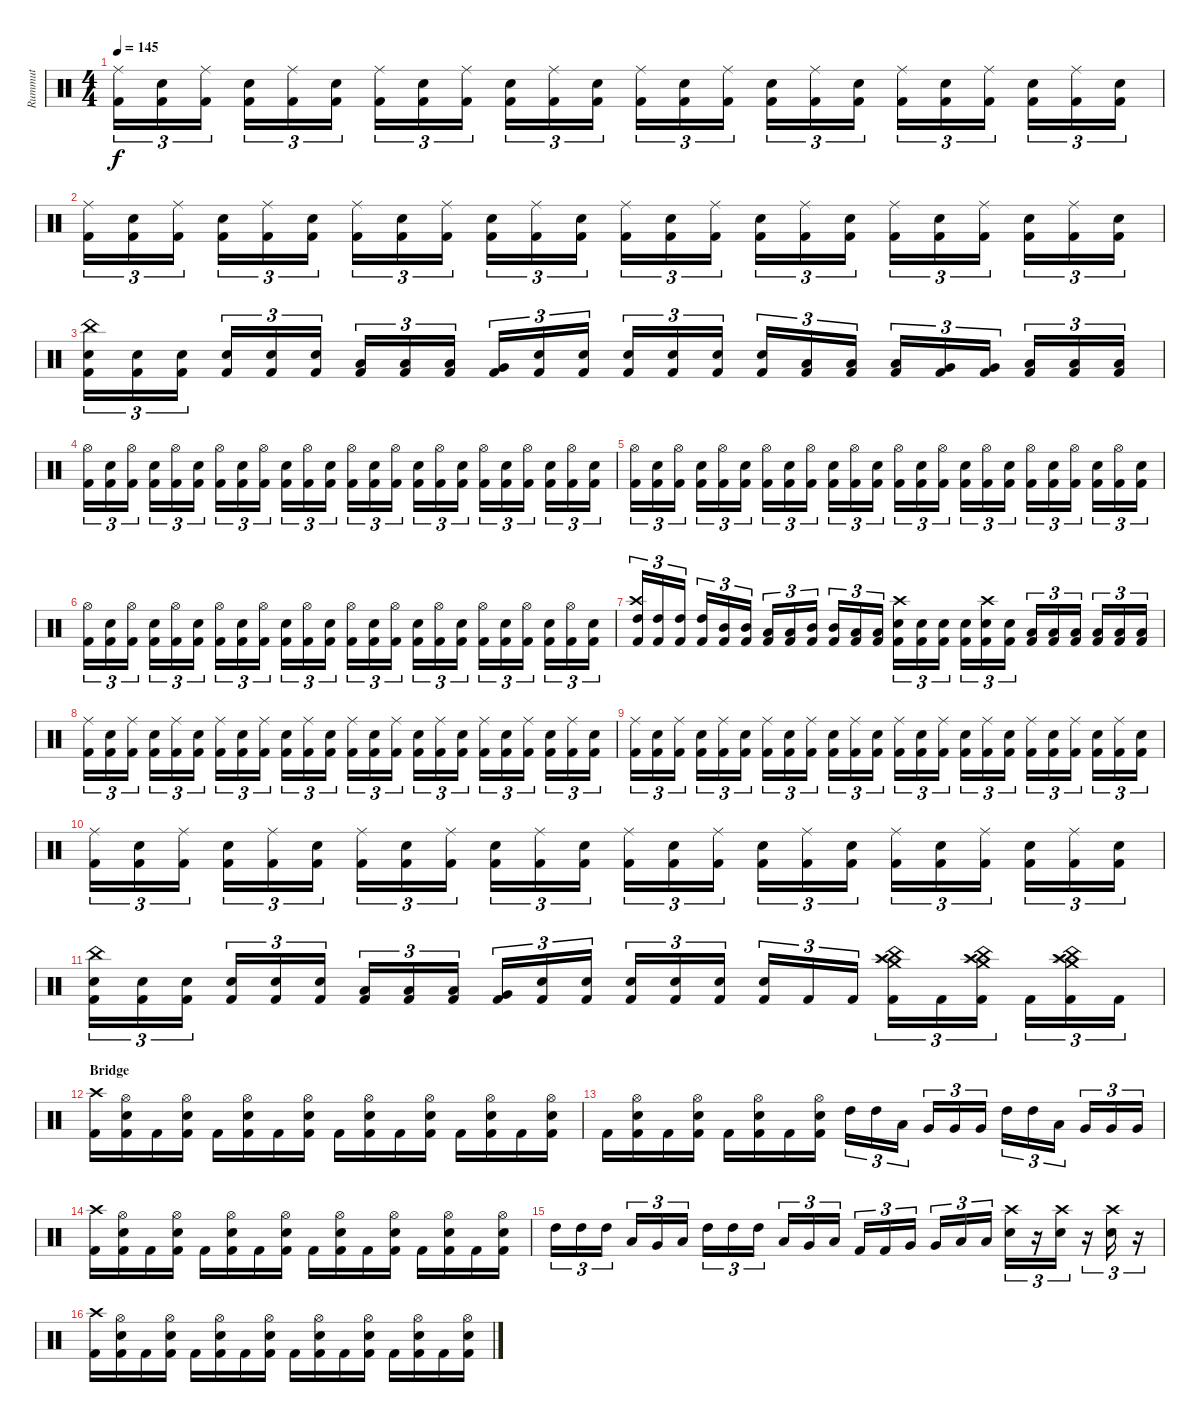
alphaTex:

\track ("Rummut" "Rummut") {instrument percussion}
\staff {score}
\articulation defaults
\ts (4 4)
\tempo 145
\clef neutral
\ks c
("Ride (middle)" "Kick (hit) 2").16{tu (3 2) dy f} ("Snare (hit) 2" "Kick (hit) 2").16{tu (3 2)} ("Ride (middle)" "Kick (hit) 2").16{tu (3 2)} ("Snare (hit) 2" "Kick (hit) 2").16{tu (3 2)} ("Ride (middle)" "Kick (hit) 2").16{tu (3 2)} ("Snare (hit) 2" "Kick (hit) 2").16{tu (3 2)} ("Ride (middle)" "Kick (hit) 2").16{tu (3 2)} ("Snare (hit) 2" "Kick (hit) 2").16{tu (3 2)} ("Ride (middle)" "Kick (hit) 2").16{tu (3 2)} ("Snare (hit) 2" "Kick (hit) 2").16{tu (3 2)} ("Ride (middle)" "Kick (hit) 2").16{tu (3 2)} ("Snare (hit) 2" "Kick (hit) 2").16{tu (3 2)} ("Ride (middle)" "Kick (hit) 2").16{tu (3 2)} ("Snare (hit) 2" "Kick (hit) 2").16{tu (3 2)} ("Ride (middle)" "Kick (hit) 2").16{tu (3 2)} ("Snare (hit) 2" "Kick (hit) 2").16{tu (3 2)} ("Ride (middle)" "Kick (hit) 2").16{tu (3 2)} ("Snare (hit) 2" "Kick (hit) 2").16{tu (3 2)} ("Ride (middle)" "Kick (hit) 2").16{tu (3 2)} ("Snare (hit) 2" "Kick (hit) 2").16{tu (3 2)} ("Ride (middle)" "Kick (hit) 2").16{tu (3 2)} ("Snare (hit) 2" "Kick (hit) 2").16{tu (3 2)} ("Ride (middle)" "Kick (hit) 2").16{tu (3 2)} ("Snare (hit) 2" "Kick (hit) 2").16{tu (3 2)} |
("Ride (middle)" "Kick (hit) 2").16{tu (3 2)} ("Snare (hit) 2" "Kick (hit) 2").16{tu (3 2)} ("Ride (middle)" "Kick (hit) 2").16{tu (3 2)} ("Snare (hit) 2" "Kick (hit) 2").16{tu (3 2)} ("Ride (middle)" "Kick (hit) 2").16{tu (3 2)} ("Snare (hit) 2" "Kick (hit) 2").16{tu (3 2)} ("Ride (middle)" "Kick (hit) 2").16{tu (3 2)} ("Snare (hit) 2" "Kick (hit) 2").16{tu (3 2)} ("Ride (middle)" "Kick (hit) 2").16{tu (3 2)} ("Snare (hit) 2" "Kick (hit) 2").16{tu (3 2)} ("Ride (middle)" "Kick (hit) 2").16{tu (3 2)} ("Snare (hit) 2" "Kick (hit) 2").16{tu (3 2)} ("Ride (middle)" "Kick (hit) 2").16{tu (3 2)} ("Snare (hit) 2" "Kick (hit) 2").16{tu (3 2)} ("Ride (middle)" "Kick (hit) 2").16{tu (3 2)} ("Snare (hit) 2" "Kick (hit) 2").16{tu (3 2)} ("Ride (middle)" "Kick (hit) 2").16{tu (3 2)} ("Snare (hit) 2" "Kick (hit) 2").16{tu (3 2)} ("Ride (middle)" "Kick (hit) 2").16{tu (3 2)} ("Snare (hit) 2" "Kick (hit) 2").16{tu (3 2)} ("Ride (middle)" "Kick (hit) 2").16{tu (3 2)} ("Snare (hit) 2" "Kick (hit) 2").16{tu (3 2)} ("Ride (middle)" "Kick (hit) 2").16{tu (3 2)} ("Snare (hit) 2" "Kick (hit) 2").16{tu (3 2)} |
("China (hit)" "Snare (hit) 2" "Kick (hit) 2").16{tu (3 2)} ("Snare (hit) 2" "Kick (hit) 2").16{tu (3 2)} ("Snare (hit) 2" "Kick (hit) 2").16{tu (3 2)} ("Snare (hit) 2" "Kick (hit) 2").16{tu (3 2)} ("Snare (hit) 2" "Kick (hit) 2").16{tu (3 2)} ("Snare (hit) 2" "Kick (hit) 2").16{tu (3 2)} ("Low Tom (hit)" "Kick (hit) 2").16{tu (3 2)} ("Low Tom (hit)" "Kick (hit) 2").16{tu (3 2)} ("Low Tom (hit)" "Kick (hit) 2").16{tu (3 2)} ("Very Low Tom (hit)" "Kick (hit) 2").16{tu (3 2)} ("Snare (hit) 2" "Kick (hit) 2").16{tu (3 2)} ("Snare (hit) 2" "Kick (hit) 2").16{tu (3 2)} ("Snare (hit) 2" "Kick (hit) 2").16{tu (3 2)} ("Snare (hit) 2" "Kick (hit) 2").16{tu (3 2)} ("Snare (hit) 2" "Kick (hit) 2").16{tu (3 2)} ("Snare (hit) 2" "Kick (hit) 2").16{tu (3 2)} ("Low Tom (hit)" "Kick (hit) 2").16{tu (3 2)} ("Low Tom (hit)" "Kick (hit) 2").16{tu (3 2)} ("Low Tom (hit)" "Kick (hit) 2").16{tu (3 2)} ("Very Low Tom (hit)" "Kick (hit) 2").16{tu (3 2)} ("Very Low Tom (hit)" "Kick (hit) 2").16{tu (3 2)} ("Low Floor Tom (hit)" "Kick (hit) 2").16{tu (3 2)} ("Low Floor Tom (hit)" "Kick (hit) 2").16{tu (3 2)} ("Low Floor Tom (hit)" "Kick (hit) 2").16{tu (3 2)} |
("Hi-Hat (open)" "Kick (hit) 2").16{tu (3 2)} ("Snare (hit) 2" "Kick (hit) 2").16{tu (3 2)} ("Hi-Hat (open)" "Kick (hit) 2").16{tu (3 2)} ("Snare (hit) 2" "Kick (hit) 2").16{tu (3 2)} ("Hi-Hat (open)" "Kick (hit) 2").16{tu (3 2)} ("Snare (hit) 2" "Kick (hit) 2").16{tu (3 2)} ("Hi-Hat (open)" "Kick (hit) 2").16{tu (3 2)} ("Snare (hit) 2" "Kick (hit) 2").16{tu (3 2)} ("Hi-Hat (open)" "Kick (hit) 2").16{tu (3 2)} ("Snare (hit) 2" "Kick (hit) 2").16{tu (3 2)} ("Hi-Hat (open)" "Kick (hit) 2").16{tu (3 2)} ("Snare (hit) 2" "Kick (hit) 2").16{tu (3 2)} ("Hi-Hat (open)" "Kick (hit) 2").16{tu (3 2)} ("Snare (hit) 2" "Kick (hit) 2").16{tu (3 2)} ("Hi-Hat (open)" "Kick (hit) 2").16{tu (3 2)} ("Snare (hit) 2" "Kick (hit) 2").16{tu (3 2)} ("Hi-Hat (open)" "Kick (hit) 2").16{tu (3 2)} ("Snare (hit) 2" "Kick (hit) 2").16{tu (3 2)} ("Hi-Hat (open)" "Kick (hit) 2").16{tu (3 2)} ("Snare (hit) 2" "Kick (hit) 2").16{tu (3 2)} ("Hi-Hat (open)" "Kick (hit) 2").16{tu (3 2)} ("Snare (hit) 2" "Kick (hit) 2").16{tu (3 2)} ("Hi-Hat (open)" "Kick (hit) 2").16{tu (3 2)} ("Snare (hit) 2" "Kick (hit) 2").16{tu (3 2)} |
("Hi-Hat (open)" "Kick (hit) 2").16{tu (3 2)} ("Snare (hit) 2" "Kick (hit) 2").16{tu (3 2)} ("Hi-Hat (open)" "Kick (hit) 2").16{tu (3 2)} ("Snare (hit) 2" "Kick (hit) 2").16{tu (3 2)} ("Hi-Hat (open)" "Kick (hit) 2").16{tu (3 2)} ("Snare (hit) 2" "Kick (hit) 2").16{tu (3 2)} ("Hi-Hat (open)" "Kick (hit) 2").16{tu (3 2)} ("Snare (hit) 2" "Kick (hit) 2").16{tu (3 2)} ("Hi-Hat (open)" "Kick (hit) 2").16{tu (3 2)} ("Snare (hit) 2" "Kick (hit) 2").16{tu (3 2)} ("Hi-Hat (open)" "Kick (hit) 2").16{tu (3 2)} ("Snare (hit) 2" "Kick (hit) 2").16{tu (3 2)} ("Hi-Hat (open)" "Kick (hit) 2").16{tu (3 2)} ("Snare (hit) 2" "Kick (hit) 2").16{tu (3 2)} ("Hi-Hat (open)" "Kick (hit) 2").16{tu (3 2)} ("Snare (hit) 2" "Kick (hit) 2").16{tu (3 2)} ("Hi-Hat (open)" "Kick (hit) 2").16{tu (3 2)} ("Snare (hit) 2" "Kick (hit) 2").16{tu (3 2)} ("Hi-Hat (open)" "Kick (hit) 2").16{tu (3 2)} ("Snare (hit) 2" "Kick (hit) 2").16{tu (3 2)} ("Hi-Hat (open)" "Kick (hit) 2").16{tu (3 2)} ("Snare (hit) 2" "Kick (hit) 2").16{tu (3 2)} ("Hi-Hat (open)" "Kick (hit) 2").16{tu (3 2)} ("Snare (hit) 2" "Kick (hit) 2").16{tu (3 2)} |
("Hi-Hat (open)" "Kick (hit) 2").16{tu (3 2)} ("Snare (hit) 2" "Kick (hit) 2").16{tu (3 2)} ("Hi-Hat (open)" "Kick (hit) 2").16{tu (3 2)} ("Snare (hit) 2" "Kick (hit) 2").16{tu (3 2)} ("Hi-Hat (open)" "Kick (hit) 2").16{tu (3 2)} ("Snare (hit) 2" "Kick (hit) 2").16{tu (3 2)} ("Hi-Hat (open)" "Kick (hit) 2").16{tu (3 2)} ("Snare (hit) 2" "Kick (hit) 2").16{tu (3 2)} ("Hi-Hat (open)" "Kick (hit) 2").16{tu (3 2)} ("Snare (hit) 2" "Kick (hit) 2").16{tu (3 2)} ("Hi-Hat (open)" "Kick (hit) 2").16{tu (3 2)} ("Snare (hit) 2" "Kick (hit) 2").16{tu (3 2)} ("Hi-Hat (open)" "Kick (hit) 2").16{tu (3 2)} ("Snare (hit) 2" "Kick (hit) 2").16{tu (3 2)} ("Hi-Hat (open)" "Kick (hit) 2").16{tu (3 2)} ("Snare (hit) 2" "Kick (hit) 2").16{tu (3 2)} ("Hi-Hat (open)" "Kick (hit) 2").16{tu (3 2)} ("Snare (hit) 2" "Kick (hit) 2").16{tu (3 2)} ("Hi-Hat (open)" "Kick (hit) 2").16{tu (3 2)} ("Snare (hit) 2" "Kick (hit) 2").16{tu (3 2)} ("Hi-Hat (open)" "Kick (hit) 2").16{tu (3 2)} ("Snare (hit) 2" "Kick (hit) 2").16{tu (3 2)} ("Hi-Hat (open)" "Kick (hit) 2").16{tu (3 2)} ("Snare (hit) 2" "Kick (hit) 2").16{tu (3 2)} |
("Crash high (hit)" "High Tom (hit)" "Kick (hit) 2").16{tu (3 2)} ("High Tom (hit)" "Kick (hit) 2").16{tu (3 2)} ("High Tom (hit)" "Kick (hit) 2").16{tu (3 2)} ("High Tom (hit)" "Kick (hit) 2").16{tu (3 2)} ("Mid Tom (hit)" "Kick (hit) 2").16{tu (3 2)} ("Mid Tom (hit)" "Kick (hit) 2").16{tu (3 2)} ("Low Tom (hit)" "Kick (hit) 2").16{tu (3 2)} ("Low Tom (hit)" "Kick (hit) 2").16{tu (3 2)} ("Mid Tom (hit)" "Kick (hit) 2").16{tu (3 2)} ("Mid Tom (hit)" "Kick (hit) 2").16{tu (3 2)} ("Low Tom (hit)" "Kick (hit) 2").16{tu (3 2)} ("Low Tom (hit)" "Kick (hit) 2").16{tu (3 2)} ("Crash high (hit)" "Snare (hit) 2" "Kick (hit) 2").16{tu (3 2)} ("Snare (hit) 2" "Kick (hit) 2").16{tu (3 2)} ("Snare (hit) 2" "Kick (hit) 2").16{tu (3 2)} ("Snare (hit) 2" "Kick (hit) 2").16{tu (3 2)} ("Crash high (hit)" "Snare (hit) 2" "Kick (hit) 2").16{tu (3 2)} ("Snare (hit) 2" "Kick (hit) 2").16{tu (3 2)} ("Low Tom (hit)" "Kick (hit) 2").16{tu (3 2)} ("Low Tom (hit)" "Kick (hit) 2").16{tu (3 2)} ("Low Tom (hit)" "Kick (hit) 2").16{tu (3 2)} ("Low Tom (hit)" "Kick (hit) 2").16{tu (3 2)} ("Low Tom (hit)" "Kick (hit) 2").16{tu (3 2)} ("Low Tom (hit)" "Kick (hit) 2").16{tu (3 2)} |
("Ride (middle)" "Kick (hit) 2").16{tu (3 2)} ("Snare (hit) 2" "Kick (hit) 2").16{tu (3 2)} ("Ride (middle)" "Kick (hit) 2").16{tu (3 2)} ("Snare (hit) 2" "Kick (hit) 2").16{tu (3 2)} ("Ride (middle)" "Kick (hit) 2").16{tu (3 2)} ("Snare (hit) 2" "Kick (hit) 2").16{tu (3 2)} ("Ride (middle)" "Kick (hit) 2").16{tu (3 2)} ("Snare (hit) 2" "Kick (hit) 2").16{tu (3 2)} ("Ride (middle)" "Kick (hit) 2").16{tu (3 2)} ("Snare (hit) 2" "Kick (hit) 2").16{tu (3 2)} ("Ride (middle)" "Kick (hit) 2").16{tu (3 2)} ("Snare (hit) 2" "Kick (hit) 2").16{tu (3 2)} ("Ride (middle)" "Kick (hit) 2").16{tu (3 2)} ("Snare (hit) 2" "Kick (hit) 2").16{tu (3 2)} ("Ride (middle)" "Kick (hit) 2").16{tu (3 2)} ("Snare (hit) 2" "Kick (hit) 2").16{tu (3 2)} ("Ride (middle)" "Kick (hit) 2").16{tu (3 2)} ("Snare (hit) 2" "Kick (hit) 2").16{tu (3 2)} ("Ride (middle)" "Kick (hit) 2").16{tu (3 2)} ("Snare (hit) 2" "Kick (hit) 2").16{tu (3 2)} ("Ride (middle)" "Kick (hit) 2").16{tu (3 2)} ("Snare (hit) 2" "Kick (hit) 2").16{tu (3 2)} ("Ride (middle)" "Kick (hit) 2").16{tu (3 2)} ("Snare (hit) 2" "Kick (hit) 2").16{tu (3 2)} |
("Ride (middle)" "Kick (hit) 2").16{tu (3 2)} ("Snare (hit) 2" "Kick (hit) 2").16{tu (3 2)} ("Ride (middle)" "Kick (hit) 2").16{tu (3 2)} ("Snare (hit) 2" "Kick (hit) 2").16{tu (3 2)} ("Ride (middle)" "Kick (hit) 2").16{tu (3 2)} ("Snare (hit) 2" "Kick (hit) 2").16{tu (3 2)} ("Ride (middle)" "Kick (hit) 2").16{tu (3 2)} ("Snare (hit) 2" "Kick (hit) 2").16{tu (3 2)} ("Ride (middle)" "Kick (hit) 2").16{tu (3 2)} ("Snare (hit) 2" "Kick (hit) 2").16{tu (3 2)} ("Ride (middle)" "Kick (hit) 2").16{tu (3 2)} ("Snare (hit) 2" "Kick (hit) 2").16{tu (3 2)} ("Ride (middle)" "Kick (hit) 2").16{tu (3 2)} ("Snare (hit) 2" "Kick (hit) 2").16{tu (3 2)} ("Ride (middle)" "Kick (hit) 2").16{tu (3 2)} ("Snare (hit) 2" "Kick (hit) 2").16{tu (3 2)} ("Ride (middle)" "Kick (hit) 2").16{tu (3 2)} ("Snare (hit) 2" "Kick (hit) 2").16{tu (3 2)} ("Ride (middle)" "Kick (hit) 2").16{tu (3 2)} ("Snare (hit) 2" "Kick (hit) 2").16{tu (3 2)} ("Ride (middle)" "Kick (hit) 2").16{tu (3 2)} ("Snare (hit) 2" "Kick (hit) 2").16{tu (3 2)} ("Ride (middle)" "Kick (hit) 2").16{tu (3 2)} ("Snare (hit) 2" "Kick (hit) 2").16{tu (3 2)} |
("Ride (middle)" "Kick (hit) 2").16{tu (3 2)} ("Snare (hit) 2" "Kick (hit) 2").16{tu (3 2)} ("Ride (middle)" "Kick (hit) 2").16{tu (3 2)} ("Snare (hit) 2" "Kick (hit) 2").16{tu (3 2)} ("Ride (middle)" "Kick (hit) 2").16{tu (3 2)} ("Snare (hit) 2" "Kick (hit) 2").16{tu (3 2)} ("Ride (middle)" "Kick (hit) 2").16{tu (3 2)} ("Snare (hit) 2" "Kick (hit) 2").16{tu (3 2)} ("Ride (middle)" "Kick (hit) 2").16{tu (3 2)} ("Snare (hit) 2" "Kick (hit) 2").16{tu (3 2)} ("Ride (middle)" "Kick (hit) 2").16{tu (3 2)} ("Snare (hit) 2" "Kick (hit) 2").16{tu (3 2)} ("Ride (middle)" "Kick (hit) 2").16{tu (3 2)} ("Snare (hit) 2" "Kick (hit) 2").16{tu (3 2)} ("Ride (middle)" "Kick (hit) 2").16{tu (3 2)} ("Snare (hit) 2" "Kick (hit) 2").16{tu (3 2)} ("Ride (middle)" "Kick (hit) 2").16{tu (3 2)} ("Snare (hit) 2" "Kick (hit) 2").16{tu (3 2)} ("Ride (middle)" "Kick (hit) 2").16{tu (3 2)} ("Snare (hit) 2" "Kick (hit) 2").16{tu (3 2)} ("Ride (middle)" "Kick (hit) 2").16{tu (3 2)} ("Snare (hit) 2" "Kick (hit) 2").16{tu (3 2)} ("Ride (middle)" "Kick (hit) 2").16{tu (3 2)} ("Snare (hit) 2" "Kick (hit) 2").16{tu (3 2)} |
("China (hit)" "Snare (hit) 2" "Kick (hit) 2").16{tu (3 2)} ("Snare (hit) 2" "Kick (hit) 2").16{tu (3 2)} ("Snare (hit) 2" "Kick (hit) 2").16{tu (3 2)} ("Snare (hit) 2" "Kick (hit) 2").16{tu (3 2)} ("Snare (hit) 2" "Kick (hit) 2").16{tu (3 2)} ("Snare (hit) 2" "Kick (hit) 2").16{tu (3 2)} ("Low Tom (hit)" "Kick (hit) 2").16{tu (3 2)} ("Low Tom (hit)" "Kick (hit) 2").16{tu (3 2)} ("Low Tom (hit)" "Kick (hit) 2").16{tu (3 2)} ("Very Low Tom (hit)" "Kick (hit) 2").16{tu (3 2)} ("Snare (hit) 2" "Kick (hit) 2").16{tu (3 2)} ("Snare (hit) 2" "Kick (hit) 2").16{tu (3 2)} ("Snare (hit) 2" "Kick (hit) 2").16{tu (3 2)} ("Snare (hit) 2" "Kick (hit) 2").16{tu (3 2)} ("Snare (hit) 2" "Kick (hit) 2").16{tu (3 2)} ("Snare (hit) 2" "Kick (hit) 2").16{tu (3 2)} "Kick (hit) 2".16{tu (3 2)} "Kick (hit) 2".16{tu (3 2)} ("Crash high (hit)" "Crash medium (hit)" "China (hit)" "Splash (hit)" "Kick (hit) 2").16{tu (3 2)} "Kick (hit) 2".16{tu (3 2)} ("Crash high (hit)" "Crash medium (hit)" "China (hit)" "Splash (hit)" "Kick (hit) 2").16{tu (3 2)} "Kick (hit) 2".16{tu (3 2)} ("Crash high (hit)" "Crash medium (hit)" "China (hit)" "Splash (hit)" "Kick (hit) 2").16{tu (3 2)} "Kick (hit) 2".16{tu (3 2)} |
\section ("" "Bridge")
("Crash high (hit)" "Kick (hit) 2").16 ("Hi-Hat (open)" "Snare (hit) 2" "Kick (hit) 2").16 "Kick (hit) 2".16 ("Hi-Hat (open)" "Snare (hit) 2" "Kick (hit) 2").16 "Kick (hit) 2".16 ("Hi-Hat (open)" "Snare (hit) 2" "Kick (hit) 2").16 "Kick (hit) 2".16 ("Hi-Hat (open)" "Snare (hit) 2" "Kick (hit) 2").16 "Kick (hit) 2".16 ("Hi-Hat (open)" "Snare (hit) 2" "Kick (hit) 2").16 "Kick (hit) 2".16 ("Hi-Hat (open)" "Snare (hit) 2" "Kick (hit) 2").16 "Kick (hit) 2".16 ("Hi-Hat (open)" "Snare (hit) 2" "Kick (hit) 2").16 "Kick (hit) 2".16 ("Hi-Hat (open)" "Snare (hit) 2" "Kick (hit) 2").16 |
"Kick (hit) 2".16 ("Hi-Hat (open)" "Snare (hit) 2" "Kick (hit) 2").16 "Kick (hit) 2".16 ("Hi-Hat (open)" "Snare (hit) 2" "Kick (hit) 2").16 "Kick (hit) 2".16 ("Hi-Hat (open)" "Snare (hit) 2" "Kick (hit) 2").16 "Kick (hit) 2".16 ("Hi-Hat (open)" "Snare (hit) 2" "Kick (hit) 2").16 "High Tom (hit)".16{tu (3 2)} "High Tom (hit)".16{tu (3 2)} "Low Tom (hit)".16{tu (3 2)} "Very Low Tom (hit)".16{tu (3 2)} "Very Low Tom (hit)".16{tu (3 2)} "Very Low Tom (hit)".16{tu (3 2)} "High Tom (hit)".16{tu (3 2)} "High Tom (hit)".16{tu (3 2)} "Low Tom (hit)".16{tu (3 2)} "Very Low Tom (hit)".16{tu (3 2)} "Very Low Tom (hit)".16{tu (3 2)} "Very Low Tom (hit)".16{tu (3 2)} |
("Crash high (hit)" "Kick (hit) 2").16 ("Hi-Hat (open)" "Snare (hit) 2" "Kick (hit) 2").16 "Kick (hit) 2".16 ("Hi-Hat (open)" "Snare (hit) 2" "Kick (hit) 2").16 "Kick (hit) 2".16 ("Hi-Hat (open)" "Snare (hit) 2" "Kick (hit) 2").16 "Kick (hit) 2".16 ("Hi-Hat (open)" "Snare (hit) 2" "Kick (hit) 2").16 "Kick (hit) 2".16 ("Hi-Hat (open)" "Snare (hit) 2" "Kick (hit) 2").16 "Kick (hit) 2".16 ("Hi-Hat (open)" "Snare (hit) 2" "Kick (hit) 2").16 "Kick (hit) 2".16 ("Hi-Hat (open)" "Snare (hit) 2" "Kick (hit) 2").16 "Kick (hit) 2".16 ("Hi-Hat (open)" "Snare (hit) 2" "Kick (hit) 2").16 |
"High Tom (hit)".16{tu (3 2)} "High Tom (hit)".16{tu (3 2)} "High Tom (hit)".16{tu (3 2)} "Low Tom (hit)".16{tu (3 2)} "Very Low Tom (hit)".16{tu (3 2)} "Low Floor Tom (hit)".16{tu (3 2)} "High Tom (hit)".16{tu (3 2)} "High Tom (hit)".16{tu (3 2)} "High Tom (hit)".16{tu (3 2)} "Low Tom (hit)".16{tu (3 2)} "Very Low Tom (hit)".16{tu (3 2)} "Low Floor Tom (hit)".16{tu (3 2)} "Kick (hit) 2".16{tu (3 2)} "Kick (hit) 2".16{tu (3 2)} "Very Low Tom (hit)".16{tu (3 2)} "Very Low Tom (hit)".16{tu (3 2)} "Low Tom (hit)".16{tu (3 2)} "Low Tom (hit)".16{tu (3 2)} ("Crash high (hit)" "Snare (hit) 2").16{tu (3 2)} r.16{tu (3 2)} ("Crash high (hit)" "Snare (hit) 2").16{tu (3 2)} r.16{tu (3 2)} ("Crash high (hit)" "Snare (hit) 2").16{tu (3 2)} r.16{tu (3 2)} |
("Crash high (hit)" "Kick (hit) 2").16 ("Hi-Hat (open)" "Snare (hit) 2" "Kick (hit) 2").16 "Kick (hit) 2".16 ("Hi-Hat (open)" "Snare (hit) 2" "Kick (hit) 2").16 "Kick (hit) 2".16 ("Hi-Hat (open)" "Snare (hit) 2" "Kick (hit) 2").16 "Kick (hit) 2".16 ("Hi-Hat (open)" "Snare (hit) 2" "Kick (hit) 2").16 "Kick (hit) 2".16 ("Hi-Hat (open)" "Snare (hit) 2" "Kick (hit) 2").16 "Kick (hit) 2".16 ("Hi-Hat (open)" "Snare (hit) 2" "Kick (hit) 2").16 "Kick (hit) 2".16 ("Hi-Hat (open)" "Snare (hit) 2" "Kick (hit) 2").16 "Kick (hit) 2".16 ("Hi-Hat (open)" "Snare (hit) 2" "Kick (hit) 2").16
